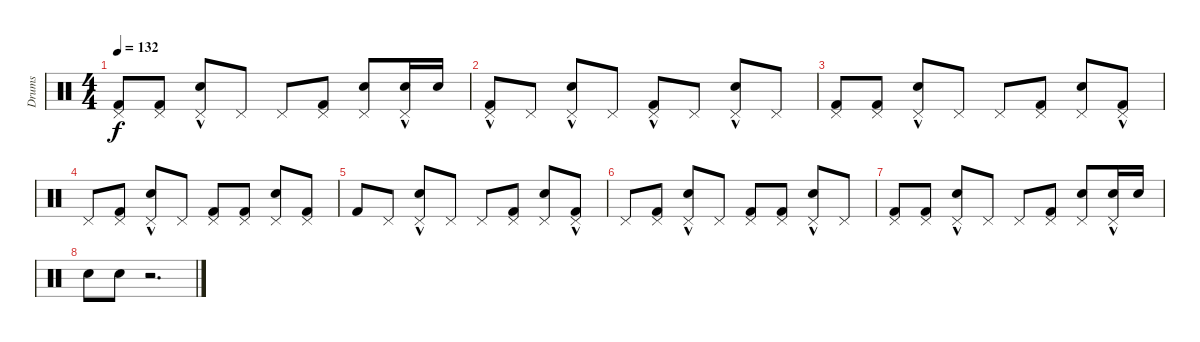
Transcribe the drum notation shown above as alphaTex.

\track ("Drums" "Drums") {instrument percussion}
\staff {score}
\articulation defaults
\ts (4 4)
\tempo 132
\clef neutral
\ks c
("Pedal Hi-Hat (hit)" "Kick (hit) 2").8{dy f} ("Pedal Hi-Hat (hit)" "Kick (hit) 2").8 ("Pedal Hi-Hat (hit)"{hac} "Snare (hit) 2").8 "Pedal Hi-Hat (hit)".8 "Pedal Hi-Hat (hit)".8 ("Pedal Hi-Hat (hit)" "Kick (hit) 2").8 ("Pedal Hi-Hat (hit)" "Snare (hit) 2").8 ("Pedal Hi-Hat (hit)"{hac} "Snare (hit) 2").16 "Snare (hit) 2".16 |
("Pedal Hi-Hat (hit)"{hac} "Kick (hit) 2").8 "Pedal Hi-Hat (hit)".8 ("Pedal Hi-Hat (hit)"{hac} "Snare (hit) 2").8 "Pedal Hi-Hat (hit)".8 ("Pedal Hi-Hat (hit)"{hac} "Kick (hit) 2").8 "Pedal Hi-Hat (hit)".8 ("Pedal Hi-Hat (hit)"{hac} "Snare (hit) 2").8 "Pedal Hi-Hat (hit)".8 |
("Pedal Hi-Hat (hit)" "Kick (hit) 2").8 ("Pedal Hi-Hat (hit)" "Kick (hit) 2").8 ("Pedal Hi-Hat (hit)"{hac} "Snare (hit) 2").8 "Pedal Hi-Hat (hit)".8 "Pedal Hi-Hat (hit)".8 ("Pedal Hi-Hat (hit)" "Kick (hit) 2").8 ("Pedal Hi-Hat (hit)" "Snare (hit) 2").8 ("Pedal Hi-Hat (hit)"{hac} "Kick (hit) 2"{hac}).8 |
"Pedal Hi-Hat (hit)".8 ("Pedal Hi-Hat (hit)" "Kick (hit) 2").8 ("Pedal Hi-Hat (hit)"{hac} "Snare (hit) 2").8 "Pedal Hi-Hat (hit)".8 ("Pedal Hi-Hat (hit)" "Kick (hit) 2").8 ("Pedal Hi-Hat (hit)" "Kick (hit) 2").8 ("Pedal Hi-Hat (hit)" "Snare (hit) 2").8 ("Pedal Hi-Hat (hit)" "Kick (hit) 2").8 |
"Kick (hit) 2".8 "Pedal Hi-Hat (hit)".8 ("Pedal Hi-Hat (hit)"{hac} "Snare (hit) 2").8 "Pedal Hi-Hat (hit)".8 "Pedal Hi-Hat (hit)".8 ("Pedal Hi-Hat (hit)" "Kick (hit) 2").8 ("Pedal Hi-Hat (hit)" "Snare (hit) 2").8 ("Pedal Hi-Hat (hit)"{hac} "Kick (hit) 2"{hac}).8 |
"Pedal Hi-Hat (hit)".8 ("Pedal Hi-Hat (hit)" "Kick (hit) 2").8 ("Pedal Hi-Hat (hit)"{hac} "Snare (hit) 2").8 "Pedal Hi-Hat (hit)".8 ("Pedal Hi-Hat (hit)" "Kick (hit) 2").8 ("Pedal Hi-Hat (hit)" "Kick (hit) 2").8 ("Pedal Hi-Hat (hit)"{hac} "Snare (hit) 2").8 "Pedal Hi-Hat (hit)".8 |
("Pedal Hi-Hat (hit)" "Kick (hit) 2").8 ("Pedal Hi-Hat (hit)" "Kick (hit) 2").8 ("Pedal Hi-Hat (hit)"{hac} "Snare (hit) 2").8 "Pedal Hi-Hat (hit)".8 "Pedal Hi-Hat (hit)".8 ("Pedal Hi-Hat (hit)" "Kick (hit) 2").8 ("Pedal Hi-Hat (hit)" "Snare (hit) 2").8 ("Pedal Hi-Hat (hit)"{hac} "Snare (hit) 2").16 "Snare (hit) 2".16 |
"Electric Snare (hit)".8 "Electric Snare (hit)".8 r.2{d}
